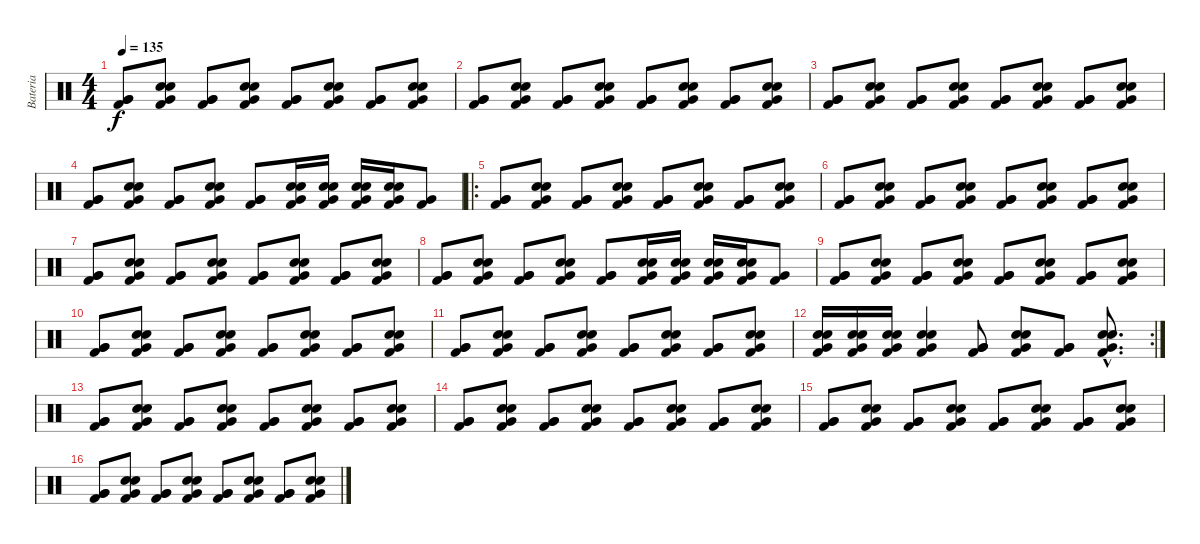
\track ("Bateria" "Bateria") {instrument percussion}
\staff {score}
\articulation defaults
\ts (4 4)
\tempo 135
\clef neutral
\ks c
("Very Low Tom (hit)" "Very Low Tom (hit)" "Kick (hit) 2").8{dy f} ("Electric Snare (hit)" "Electric Snare (hit)" "Very Low Tom (hit)" "Kick (hit) 2").8 ("Very Low Tom (hit)" "Very Low Tom (hit)" "Kick (hit) 2").8 ("Electric Snare (hit)" "Electric Snare (hit)" "Very Low Tom (hit)" "Kick (hit) 2").8 ("Very Low Tom (hit)" "Very Low Tom (hit)" "Kick (hit) 2").8 ("Electric Snare (hit)" "Electric Snare (hit)" "Very Low Tom (hit)" "Kick (hit) 2").8 ("Very Low Tom (hit)" "Very Low Tom (hit)" "Kick (hit) 2").8 ("Electric Snare (hit)" "Electric Snare (hit)" "Very Low Tom (hit)" "Kick (hit) 2").8 |
("Very Low Tom (hit)" "Very Low Tom (hit)" "Kick (hit) 2").8 ("Electric Snare (hit)" "Electric Snare (hit)" "Very Low Tom (hit)" "Kick (hit) 2").8 ("Very Low Tom (hit)" "Very Low Tom (hit)" "Kick (hit) 2").8 ("Electric Snare (hit)" "Electric Snare (hit)" "Very Low Tom (hit)" "Kick (hit) 2").8 ("Very Low Tom (hit)" "Very Low Tom (hit)" "Kick (hit) 2").8 ("Electric Snare (hit)" "Electric Snare (hit)" "Very Low Tom (hit)" "Kick (hit) 2").8 ("Very Low Tom (hit)" "Very Low Tom (hit)" "Kick (hit) 2").8 ("Electric Snare (hit)" "Electric Snare (hit)" "Very Low Tom (hit)" "Kick (hit) 2").8 |
("Very Low Tom (hit)" "Very Low Tom (hit)" "Kick (hit) 2").8 ("Electric Snare (hit)" "Electric Snare (hit)" "Very Low Tom (hit)" "Kick (hit) 2").8 ("Very Low Tom (hit)" "Very Low Tom (hit)" "Kick (hit) 2").8 ("Electric Snare (hit)" "Electric Snare (hit)" "Very Low Tom (hit)" "Kick (hit) 2").8 ("Very Low Tom (hit)" "Very Low Tom (hit)" "Kick (hit) 2").8 ("Electric Snare (hit)" "Electric Snare (hit)" "Very Low Tom (hit)" "Kick (hit) 2").8 ("Very Low Tom (hit)" "Very Low Tom (hit)" "Kick (hit) 2").8 ("Electric Snare (hit)" "Electric Snare (hit)" "Very Low Tom (hit)" "Kick (hit) 2").8 |
("Very Low Tom (hit)" "Very Low Tom (hit)" "Kick (hit) 2").8 ("Electric Snare (hit)" "Electric Snare (hit)" "Very Low Tom (hit)" "Kick (hit) 2").8 ("Very Low Tom (hit)" "Very Low Tom (hit)" "Kick (hit) 2").8 ("Electric Snare (hit)" "Electric Snare (hit)" "Very Low Tom (hit)" "Kick (hit) 2").8 ("Very Low Tom (hit)" "Very Low Tom (hit)" "Kick (hit) 2").8 ("Electric Snare (hit)" "Electric Snare (hit)" "Very Low Tom (hit)" "Kick (hit) 2").16 ("Electric Snare (hit)" "Electric Snare (hit)" "Very Low Tom (hit)" "Kick (hit) 2").16 ("Electric Snare (hit)" "Electric Snare (hit)" "Very Low Tom (hit)" "Kick (hit) 2").16 ("Electric Snare (hit)" "Electric Snare (hit)" "Very Low Tom (hit)" "Kick (hit) 2").16 ("Very Low Tom (hit)" "Kick (hit) 2").8 |
\ro
("Very Low Tom (hit)" "Very Low Tom (hit)" "Kick (hit) 2").8 ("Electric Snare (hit)" "Electric Snare (hit)" "Very Low Tom (hit)" "Kick (hit) 2").8 ("Very Low Tom (hit)" "Very Low Tom (hit)" "Kick (hit) 2").8 ("Electric Snare (hit)" "Electric Snare (hit)" "Very Low Tom (hit)" "Kick (hit) 2").8 ("Very Low Tom (hit)" "Very Low Tom (hit)" "Kick (hit) 2").8 ("Electric Snare (hit)" "Electric Snare (hit)" "Very Low Tom (hit)" "Kick (hit) 2").8 ("Very Low Tom (hit)" "Very Low Tom (hit)" "Kick (hit) 2").8 ("Electric Snare (hit)" "Electric Snare (hit)" "Very Low Tom (hit)" "Kick (hit) 2").8 |
("Very Low Tom (hit)" "Very Low Tom (hit)" "Kick (hit) 2").8 ("Electric Snare (hit)" "Electric Snare (hit)" "Very Low Tom (hit)" "Kick (hit) 2").8 ("Very Low Tom (hit)" "Very Low Tom (hit)" "Kick (hit) 2").8 ("Electric Snare (hit)" "Electric Snare (hit)" "Very Low Tom (hit)" "Kick (hit) 2").8 ("Very Low Tom (hit)" "Very Low Tom (hit)" "Kick (hit) 2").8 ("Electric Snare (hit)" "Electric Snare (hit)" "Very Low Tom (hit)" "Kick (hit) 2").8 ("Very Low Tom (hit)" "Very Low Tom (hit)" "Kick (hit) 2").8 ("Electric Snare (hit)" "Electric Snare (hit)" "Very Low Tom (hit)" "Kick (hit) 2").8 |
("Very Low Tom (hit)" "Very Low Tom (hit)" "Kick (hit) 2").8 ("Electric Snare (hit)" "Electric Snare (hit)" "Very Low Tom (hit)" "Kick (hit) 2").8 ("Very Low Tom (hit)" "Very Low Tom (hit)" "Kick (hit) 2").8 ("Electric Snare (hit)" "Electric Snare (hit)" "Very Low Tom (hit)" "Kick (hit) 2").8 ("Very Low Tom (hit)" "Very Low Tom (hit)" "Kick (hit) 2").8 ("Electric Snare (hit)" "Electric Snare (hit)" "Very Low Tom (hit)" "Kick (hit) 2").8 ("Very Low Tom (hit)" "Very Low Tom (hit)" "Kick (hit) 2").8 ("Electric Snare (hit)" "Electric Snare (hit)" "Very Low Tom (hit)" "Kick (hit) 2").8 |
("Very Low Tom (hit)" "Very Low Tom (hit)" "Kick (hit) 2").8 ("Electric Snare (hit)" "Electric Snare (hit)" "Very Low Tom (hit)" "Kick (hit) 2").8 ("Very Low Tom (hit)" "Very Low Tom (hit)" "Kick (hit) 2").8 ("Electric Snare (hit)" "Electric Snare (hit)" "Very Low Tom (hit)" "Kick (hit) 2").8 ("Very Low Tom (hit)" "Very Low Tom (hit)" "Kick (hit) 2").8 ("Electric Snare (hit)" "Electric Snare (hit)" "Very Low Tom (hit)" "Kick (hit) 2").16 ("Electric Snare (hit)" "Electric Snare (hit)" "Very Low Tom (hit)" "Kick (hit) 2").16 ("Electric Snare (hit)" "Electric Snare (hit)" "Very Low Tom (hit)" "Kick (hit) 2").16 ("Electric Snare (hit)" "Electric Snare (hit)" "Very Low Tom (hit)" "Kick (hit) 2").16 ("Very Low Tom (hit)" "Kick (hit) 2").8 |
("Very Low Tom (hit)" "Very Low Tom (hit)" "Kick (hit) 2").8 ("Electric Snare (hit)" "Electric Snare (hit)" "Very Low Tom (hit)" "Kick (hit) 2").8 ("Very Low Tom (hit)" "Very Low Tom (hit)" "Kick (hit) 2").8 ("Electric Snare (hit)" "Electric Snare (hit)" "Very Low Tom (hit)" "Kick (hit) 2").8 ("Very Low Tom (hit)" "Very Low Tom (hit)" "Kick (hit) 2").8 ("Electric Snare (hit)" "Electric Snare (hit)" "Very Low Tom (hit)" "Kick (hit) 2").8 ("Very Low Tom (hit)" "Very Low Tom (hit)" "Kick (hit) 2").8 ("Electric Snare (hit)" "Electric Snare (hit)" "Very Low Tom (hit)" "Kick (hit) 2").8 |
("Very Low Tom (hit)" "Very Low Tom (hit)" "Kick (hit) 2").8 ("Electric Snare (hit)" "Electric Snare (hit)" "Very Low Tom (hit)" "Kick (hit) 2").8 ("Very Low Tom (hit)" "Very Low Tom (hit)" "Kick (hit) 2").8 ("Electric Snare (hit)" "Electric Snare (hit)" "Very Low Tom (hit)" "Kick (hit) 2").8 ("Very Low Tom (hit)" "Very Low Tom (hit)" "Kick (hit) 2").8 ("Electric Snare (hit)" "Electric Snare (hit)" "Very Low Tom (hit)" "Kick (hit) 2").8 ("Very Low Tom (hit)" "Very Low Tom (hit)" "Kick (hit) 2").8 ("Electric Snare (hit)" "Electric Snare (hit)" "Very Low Tom (hit)" "Kick (hit) 2").8 |
("Very Low Tom (hit)" "Very Low Tom (hit)" "Kick (hit) 2").8 ("Electric Snare (hit)" "Electric Snare (hit)" "Very Low Tom (hit)" "Kick (hit) 2").8 ("Very Low Tom (hit)" "Very Low Tom (hit)" "Kick (hit) 2").8 ("Electric Snare (hit)" "Electric Snare (hit)" "Very Low Tom (hit)" "Kick (hit) 2").8 ("Very Low Tom (hit)" "Very Low Tom (hit)" "Kick (hit) 2").8 ("Electric Snare (hit)" "Electric Snare (hit)" "Very Low Tom (hit)" "Kick (hit) 2").8 ("Very Low Tom (hit)" "Very Low Tom (hit)" "Kick (hit) 2").8 ("Electric Snare (hit)" "Electric Snare (hit)" "Very Low Tom (hit)" "Kick (hit) 2").8 |
\rc 2
("Electric Snare (hit)" "Electric Snare (hit)" "Very Low Tom (hit)" "Kick (hit) 2").16 ("Electric Snare (hit)" "Electric Snare (hit)" "Very Low Tom (hit)" "Kick (hit) 2").16 ("Electric Snare (hit)" "Electric Snare (hit)" "Very Low Tom (hit)" "Kick (hit) 2").16 ("Electric Snare (hit)" "Electric Snare (hit)" "Very Low Tom (hit)" "Kick (hit) 2").4 ("Very Low Tom (hit)" "Very Low Tom (hit)" "Kick (hit) 2").8 ("Electric Snare (hit)" "Electric Snare (hit)" "Very Low Tom (hit)" "Kick (hit) 2").8 ("Very Low Tom (hit)" "Very Low Tom (hit)" "Kick (hit) 2").8 ("Electric Snare (hit)"{hac} "Electric Snare (hit)"{hac} "Very Low Tom (hit)"{hac} "Kick (hit) 2"{hac}).8{d} |
("Very Low Tom (hit)" "Very Low Tom (hit)" "Kick (hit) 2").8 ("Electric Snare (hit)" "Electric Snare (hit)" "Very Low Tom (hit)" "Kick (hit) 2").8 ("Very Low Tom (hit)" "Very Low Tom (hit)" "Kick (hit) 2").8 ("Electric Snare (hit)" "Electric Snare (hit)" "Very Low Tom (hit)" "Kick (hit) 2").8 ("Very Low Tom (hit)" "Very Low Tom (hit)" "Kick (hit) 2").8 ("Electric Snare (hit)" "Electric Snare (hit)" "Very Low Tom (hit)" "Kick (hit) 2").8 ("Very Low Tom (hit)" "Very Low Tom (hit)" "Kick (hit) 2").8 ("Electric Snare (hit)" "Electric Snare (hit)" "Very Low Tom (hit)" "Kick (hit) 2").8 |
("Very Low Tom (hit)" "Very Low Tom (hit)" "Kick (hit) 2").8 ("Electric Snare (hit)" "Electric Snare (hit)" "Very Low Tom (hit)" "Kick (hit) 2").8 ("Very Low Tom (hit)" "Very Low Tom (hit)" "Kick (hit) 2").8 ("Electric Snare (hit)" "Electric Snare (hit)" "Very Low Tom (hit)" "Kick (hit) 2").8 ("Very Low Tom (hit)" "Very Low Tom (hit)" "Kick (hit) 2").8 ("Electric Snare (hit)" "Electric Snare (hit)" "Very Low Tom (hit)" "Kick (hit) 2").8 ("Very Low Tom (hit)" "Very Low Tom (hit)" "Kick (hit) 2").8 ("Electric Snare (hit)" "Electric Snare (hit)" "Very Low Tom (hit)" "Kick (hit) 2").8 |
("Very Low Tom (hit)" "Very Low Tom (hit)" "Kick (hit) 2").8 ("Electric Snare (hit)" "Electric Snare (hit)" "Very Low Tom (hit)" "Kick (hit) 2").8 ("Very Low Tom (hit)" "Very Low Tom (hit)" "Kick (hit) 2").8 ("Electric Snare (hit)" "Electric Snare (hit)" "Very Low Tom (hit)" "Kick (hit) 2").8 ("Very Low Tom (hit)" "Very Low Tom (hit)" "Kick (hit) 2").8 ("Electric Snare (hit)" "Electric Snare (hit)" "Very Low Tom (hit)" "Kick (hit) 2").8 ("Very Low Tom (hit)" "Very Low Tom (hit)" "Kick (hit) 2").8 ("Electric Snare (hit)" "Electric Snare (hit)" "Very Low Tom (hit)" "Kick (hit) 2").8 |
("Very Low Tom (hit)" "Very Low Tom (hit)" "Kick (hit) 2").8 ("Electric Snare (hit)" "Electric Snare (hit)" "Very Low Tom (hit)" "Kick (hit) 2").8 ("Very Low Tom (hit)" "Very Low Tom (hit)" "Kick (hit) 2").8 ("Electric Snare (hit)" "Electric Snare (hit)" "Very Low Tom (hit)" "Kick (hit) 2").8 ("Very Low Tom (hit)" "Very Low Tom (hit)" "Kick (hit) 2").8 ("Electric Snare (hit)" "Electric Snare (hit)" "Very Low Tom (hit)" "Kick (hit) 2").8 ("Very Low Tom (hit)" "Very Low Tom (hit)" "Kick (hit) 2").8 ("Electric Snare (hit)" "Electric Snare (hit)" "Very Low Tom (hit)" "Kick (hit) 2").8
